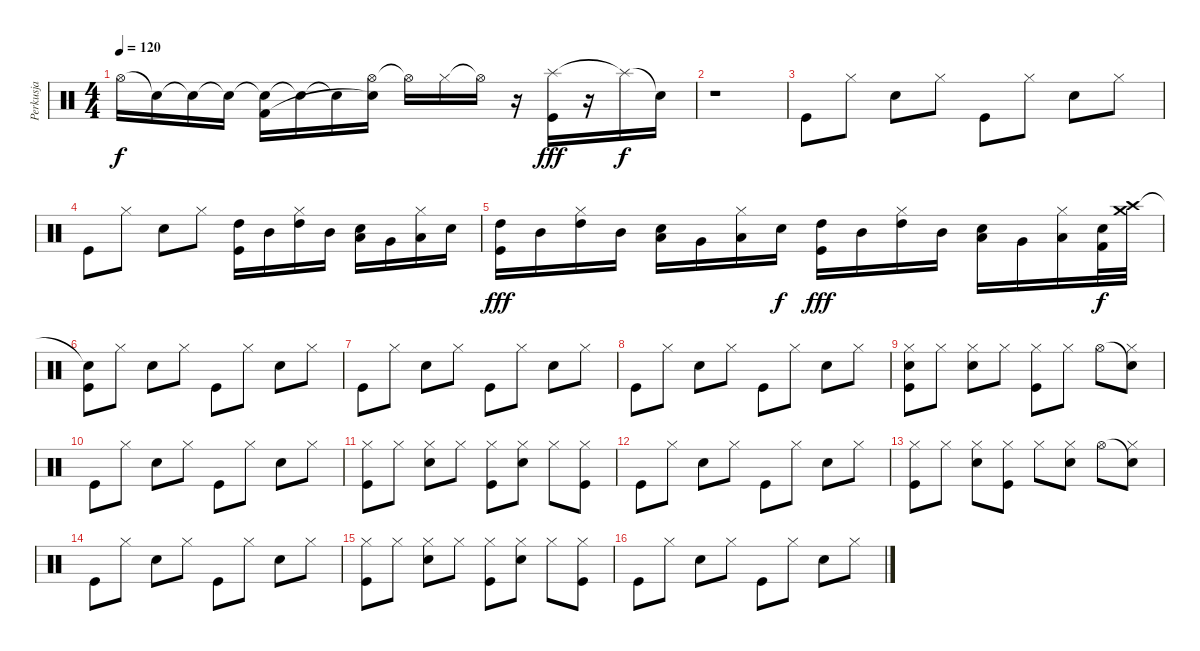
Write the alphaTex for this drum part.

\track ("Perkusja" "Perkusja") {instrument percussion}
\staff {score}
\articulation defaults
\ts (4 4)
\tempo 120
\clef neutral
\ks c "Hi-Hat (open)".16{dy f} "Snare (hit)"{t}.16 "Snare (hit)"{t}.16 "Snare (hit)"{t}.16
("Snare (hit)"{t} "Kick (hit) 2").16 "Snare (hit)"{t}.16 "Snare (hit)"{t}.16 ("Hi-Hat (open)" "Snare (hit)"{t}).16 "Hi-Hat (open)"{t}.16 "Hi-Hat (closed)".16 "Hi-Hat (open)"{t}.16 r.16 ("Splash (hit)" "Kick (hit)").16{dy fff} r.16 "Splash (hit)"{t}.16{dy f} "Snare (hit)"{t}.16 |
r.1 |
"Kick (hit)".8 "Hi-Hat (closed)".8 "Snare (hit) 2".8 "Hi-Hat (closed)".8 "Kick (hit)".8 "Hi-Hat (closed)".8 "Snare (hit) 2".8 "Hi-Hat (closed)".8 |
"Kick (hit)".8 "Hi-Hat (closed)".8 "Snare (hit) 2".8 "Hi-Hat (closed)".8 ("Kick (hit)" "High Tom (hit)").16 "Mid Tom (hit)".16 ("Hi-Hat (closed)" "High Tom (hit)").16 "Mid Tom (hit)".16 ("Snare (hit) 2" "Low Tom (hit)").16 "Very Low Tom (hit)".16 ("Hi-Hat (closed)" "Low Floor Tom (hit)").16 "Snare (hit) 2".16 |
("Kick (hit)" "High Tom (hit)").16{dy fff} "Mid Tom (hit)".16 ("Hi-Hat (closed)" "High Tom (hit)").16 "Mid Tom (hit)".16 ("Snare (hit) 2" "Low Tom (hit)").16 "Very Low Tom (hit)".16 ("Hi-Hat (closed)" "Low Floor Tom (hit)").16 "Snare (hit) 2".16{dy f} ("Kick (hit)" "High Tom (hit)").16{dy fff} "Mid Tom (hit)".16 ("Hi-Hat (closed)" "High Tom (hit)").16 "Mid Tom (hit)".16 ("Snare (hit) 2" "Low Tom (hit)").16 "Very Low Tom (hit)".16 ("Hi-Hat (closed)" "Low Floor Tom (hit)").16 ("Snare (hit) 2" "Kick (hit) 2").32{dy f} ("Crash medium (hit)" "Crash high (hit)").32 |
("Kick (hit)" "Snare (hit)"{t}).8 "Hi-Hat (closed)".8 "Snare (hit) 2".8 "Hi-Hat (closed)".8 "Kick (hit)".8 "Hi-Hat (closed)".8 "Snare (hit) 2".8 "Hi-Hat (closed)".8 |
"Kick (hit)".8 "Hi-Hat (closed)".8 "Snare (hit) 2".8 "Hi-Hat (closed)".8 "Kick (hit)".8 "Hi-Hat (closed)".8 "Snare (hit) 2".8 "Hi-Hat (closed)".8 |
"Kick (hit)".8 "Hi-Hat (closed)".8 "Snare (hit) 2".8 "Hi-Hat (closed)".8 "Kick (hit)".8 "Hi-Hat (closed)".8 "Snare (hit) 2".8 "Hi-Hat (closed)".8 |
("Hi-Hat (closed)" "Kick (hit)" "Snare (hit)").8 "Hi-Hat (closed)".8 ("Hi-Hat (closed)" "Snare (hit) 2").8 "Hi-Hat (closed)".8 ("Hi-Hat (closed)" "Kick (hit)").8 "Hi-Hat (closed)".8 "Hi-Hat (open)".8 ("Snare (hit)"{t} "Hi-Hat (closed)").8 |
"Kick (hit)".8 "Hi-Hat (closed)".8 "Snare (hit) 2".8 "Hi-Hat (closed)".8 "Kick (hit)".8 "Hi-Hat (closed)".8 "Snare (hit) 2".8 "Hi-Hat (closed)".8 |
("Hi-Hat (closed)" "Kick (hit)").8 "Hi-Hat (closed)".8 ("Hi-Hat (closed)" "Snare (hit) 2").8 "Hi-Hat (closed)".8 ("Hi-Hat (closed)" "Kick (hit)").8 ("Hi-Hat (closed)" "Snare (hit) 2").8 "Hi-Hat (closed)".8 ("Hi-Hat (closed)" "Kick (hit)").8 |
"Kick (hit)".8 "Hi-Hat (closed)".8 "Snare (hit) 2".8 "Hi-Hat (closed)".8 "Kick (hit)".8 "Hi-Hat (closed)".8 "Snare (hit) 2".8 "Hi-Hat (closed)".8 |
("Hi-Hat (closed)" "Kick (hit)").8 "Hi-Hat (closed)".8 ("Hi-Hat (closed)" "Snare (hit) 2").8 ("Hi-Hat (closed)" "Kick (hit)").8 "Hi-Hat (closed)".8 ("Hi-Hat (closed)" "Snare (hit) 2").8 "Hi-Hat (open)".8 ("Snare (hit)"{t} "Hi-Hat (closed)").8 |
"Kick (hit)".8 "Hi-Hat (closed)".8 "Snare (hit) 2".8 "Hi-Hat (closed)".8 "Kick (hit)".8 "Hi-Hat (closed)".8 "Snare (hit) 2".8 "Hi-Hat (closed)".8 |
("Hi-Hat (closed)" "Kick (hit)").8 "Hi-Hat (closed)".8 ("Hi-Hat (closed)" "Snare (hit) 2").8 "Hi-Hat (closed)".8 ("Hi-Hat (closed)" "Kick (hit)").8 ("Hi-Hat (closed)" "Snare (hit) 2").8 "Hi-Hat (closed)".8 ("Hi-Hat (closed)" "Kick (hit)").8 |
"Kick (hit)".8 "Hi-Hat (closed)".8 "Snare (hit) 2".8 "Hi-Hat (closed)".8 "Kick (hit)".8 "Hi-Hat (closed)".8 "Snare (hit) 2".8 "Hi-Hat (closed)".8
